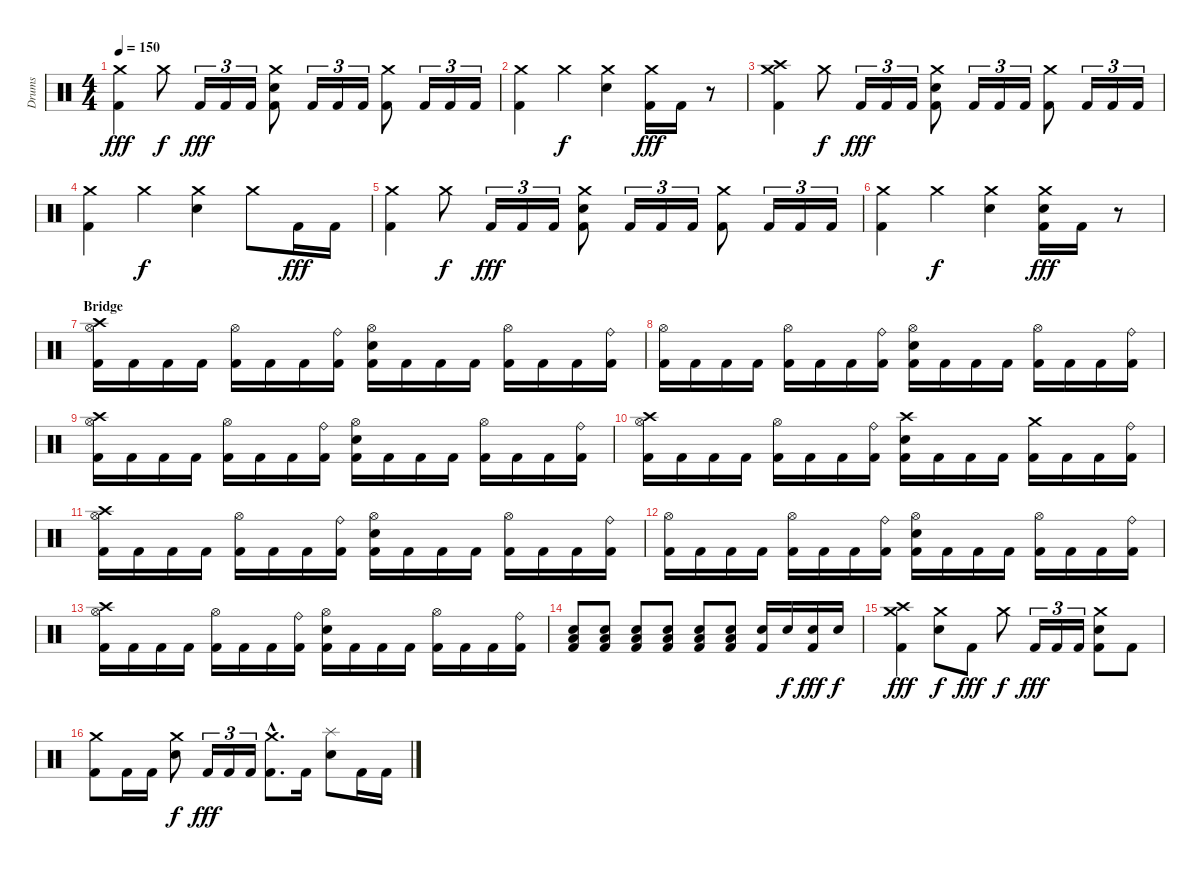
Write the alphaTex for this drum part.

\track ("Drums" "Drums") {instrument percussion}
\staff {score}
\articulation defaults
\ts (4 4)
\tempo 150
\clef neutral
\ks c
("Crash medium (hit)" "Kick (hit) 2").4{dy fff} "Crash medium (hit)".8{dy f} "Kick (hit) 2".16{tu (3 2) dy fff} "Kick (hit) 2".16{tu (3 2)} "Kick (hit) 2".16{tu (3 2)} ("Crash medium (hit)" "Snare (hit) 2" "Kick (hit) 2").8 "Kick (hit) 2".16{tu (3 2)} "Kick (hit) 2".16{tu (3 2)} "Kick (hit) 2".16{tu (3 2)} ("Crash medium (hit)" "Kick (hit) 2").8 "Kick (hit) 2".16{tu (3 2)} "Kick (hit) 2".16{tu (3 2)} "Kick (hit) 2".16{tu (3 2)} |
("Crash medium (hit)" "Kick (hit) 2").4 "Crash medium (hit)".4{dy f} ("Crash medium (hit)" "Snare (hit) 2").4 ("Crash medium (hit)" "Kick (hit) 2").16{dy fff} "Kick (hit) 2".16 r.8 |
("Crash medium (hit)" "Crash high (hit)" "Kick (hit) 2").4 "Crash medium (hit)".8{dy f} "Kick (hit) 2".16{tu (3 2) dy fff} "Kick (hit) 2".16{tu (3 2)} "Kick (hit) 2".16{tu (3 2)} ("Crash medium (hit)" "Snare (hit) 2" "Kick (hit) 2").8 "Kick (hit) 2".16{tu (3 2)} "Kick (hit) 2".16{tu (3 2)} "Kick (hit) 2".16{tu (3 2)} ("Crash medium (hit)" "Kick (hit) 2").8 "Kick (hit) 2".16{tu (3 2)} "Kick (hit) 2".16{tu (3 2)} "Kick (hit) 2".16{tu (3 2)} |
("Crash medium (hit)" "Kick (hit) 2").4 "Crash medium (hit)".4{dy f} ("Crash medium (hit)" "Snare (hit) 2").4 "Crash medium (hit)".8 "Kick (hit) 2".16{dy fff} "Kick (hit) 2".16 |
("Crash medium (hit)" "Kick (hit) 2").4 "Crash medium (hit)".8{dy f} "Kick (hit) 2".16{tu (3 2) dy fff} "Kick (hit) 2".16{tu (3 2)} "Kick (hit) 2".16{tu (3 2)} ("Crash medium (hit)" "Snare (hit) 2" "Kick (hit) 2").8 "Kick (hit) 2".16{tu (3 2)} "Kick (hit) 2".16{tu (3 2)} "Kick (hit) 2".16{tu (3 2)} ("Crash medium (hit)" "Kick (hit) 2").8 "Kick (hit) 2".16{tu (3 2)} "Kick (hit) 2".16{tu (3 2)} "Kick (hit) 2".16{tu (3 2)} |
("Crash medium (hit)" "Kick (hit) 2").4 "Crash medium (hit)".4{dy f} ("Crash medium (hit)" "Snare (hit) 2").4 ("Crash medium (hit)" "Snare (hit) 2" "Kick (hit) 2").16{dy fff} "Kick (hit) 2".16 r.8 |
\section ("" "Bridge")
("Hi-Hat (open)" "Crash high (hit)" "Kick (hit) 2").16 "Kick (hit) 2".16 "Kick (hit) 2".16 "Kick (hit) 2".16 ("Hi-Hat (open)" "Kick (hit) 2").16 "Kick (hit) 2".16 "Kick (hit) 2".16 ("Ride (bell)" "Kick (hit) 2").16 ("Hi-Hat (open)" "Snare (hit) 2" "Kick (hit) 2").16 "Kick (hit) 2".16 "Kick (hit) 2".16 "Kick (hit) 2".16 ("Hi-Hat (open)" "Kick (hit) 2").16 "Kick (hit) 2".16 "Kick (hit) 2".16 ("Ride (bell)" "Kick (hit) 2").16 |
("Hi-Hat (open)" "Kick (hit) 2").16 "Kick (hit) 2".16 "Kick (hit) 2".16 "Kick (hit) 2".16 ("Hi-Hat (open)" "Kick (hit) 2").16 "Kick (hit) 2".16 "Kick (hit) 2".16 ("Ride (bell)" "Kick (hit) 2").16 ("Hi-Hat (open)" "Snare (hit) 2" "Kick (hit) 2").16 "Kick (hit) 2".16 "Kick (hit) 2".16 "Kick (hit) 2".16 ("Hi-Hat (open)" "Kick (hit) 2").16 "Kick (hit) 2".16 "Kick (hit) 2".16 ("Ride (bell)" "Kick (hit) 2").16 |
("Hi-Hat (open)" "Crash high (hit)" "Kick (hit) 2").16 "Kick (hit) 2".16 "Kick (hit) 2".16 "Kick (hit) 2".16 ("Hi-Hat (open)" "Kick (hit) 2").16 "Kick (hit) 2".16 "Kick (hit) 2".16 ("Ride (bell)" "Kick (hit) 2").16 ("Hi-Hat (open)" "Snare (hit) 2" "Kick (hit) 2").16 "Kick (hit) 2".16 "Kick (hit) 2".16 "Kick (hit) 2".16 ("Hi-Hat (open)" "Kick (hit) 2").16 "Kick (hit) 2".16 "Kick (hit) 2".16 ("Ride (bell)" "Kick (hit) 2").16 |
("Hi-Hat (open)" "Crash high (hit)" "Kick (hit) 2").16 "Kick (hit) 2".16 "Kick (hit) 2".16 "Kick (hit) 2".16 ("Hi-Hat (open)" "Kick (hit) 2").16 "Kick (hit) 2".16 "Kick (hit) 2".16 ("Ride (bell)" "Kick (hit) 2").16 ("Crash high (hit)" "Snare (hit) 2" "Kick (hit) 2").16 "Kick (hit) 2".16 "Kick (hit) 2".16 "Kick (hit) 2".16 ("Crash medium (hit)" "Kick (hit) 2").16 "Kick (hit) 2".16 "Kick (hit) 2".16 ("Ride (bell)" "Kick (hit) 2").16 |
("Hi-Hat (open)" "Crash high (hit)" "Kick (hit) 2").16 "Kick (hit) 2".16 "Kick (hit) 2".16 "Kick (hit) 2".16 ("Hi-Hat (open)" "Kick (hit) 2").16 "Kick (hit) 2".16 "Kick (hit) 2".16 ("Ride (bell)" "Kick (hit) 2").16 ("Hi-Hat (open)" "Snare (hit) 2" "Kick (hit) 2").16 "Kick (hit) 2".16 "Kick (hit) 2".16 "Kick (hit) 2".16 ("Hi-Hat (open)" "Kick (hit) 2").16 "Kick (hit) 2".16 "Kick (hit) 2".16 ("Ride (bell)" "Kick (hit) 2").16 |
("Hi-Hat (open)" "Kick (hit) 2").16 "Kick (hit) 2".16 "Kick (hit) 2".16 "Kick (hit) 2".16 ("Hi-Hat (open)" "Kick (hit) 2").16 "Kick (hit) 2".16 "Kick (hit) 2".16 ("Ride (bell)" "Kick (hit) 2").16 ("Hi-Hat (open)" "Snare (hit) 2" "Kick (hit) 2").16 "Kick (hit) 2".16 "Kick (hit) 2".16 "Kick (hit) 2".16 ("Hi-Hat (open)" "Kick (hit) 2").16 "Kick (hit) 2".16 "Kick (hit) 2".16 ("Ride (bell)" "Kick (hit) 2").16 |
("Hi-Hat (open)" "Crash high (hit)" "Kick (hit) 2").16 "Kick (hit) 2".16 "Kick (hit) 2".16 "Kick (hit) 2".16 ("Hi-Hat (open)" "Kick (hit) 2").16 "Kick (hit) 2".16 "Kick (hit) 2".16 ("Ride (bell)" "Kick (hit) 2").16 ("Hi-Hat (open)" "Snare (hit) 2" "Kick (hit) 2").16 "Kick (hit) 2".16 "Kick (hit) 2".16 "Kick (hit) 2".16 ("Hi-Hat (open)" "Kick (hit) 2").16 "Kick (hit) 2".16 "Kick (hit) 2".16 ("Ride (bell)" "Kick (hit) 2").16 |
("Low Floor Tom (hit)" "Snare (hit) 2" "Kick (hit) 2").8 ("Low Floor Tom (hit)" "Snare (hit) 2" "Kick (hit) 2").8 ("Low Floor Tom (hit)" "Snare (hit) 2" "Kick (hit) 2").8 ("Low Floor Tom (hit)" "Snare (hit) 2" "Kick (hit) 2").8 ("Low Floor Tom (hit)" "Snare (hit) 2" "Kick (hit) 2").8 ("Low Floor Tom (hit)" "Snare (hit) 2" "Kick (hit) 2").8 ("Snare (hit) 2" "Kick (hit) 2").16 "Snare (hit) 2".16{dy f} ("Snare (hit) 2" "Kick (hit) 2").16{dy fff} "Snare (hit) 2".16{dy f} |
("Crash medium (hit)" "Crash high (hit)" "Kick (hit) 2").4{dy fff} ("Crash medium (hit)" "Snare (hit) 2").8{dy f} "Kick (hit) 2".8{dy fff} "Crash medium (hit)".8{dy f} "Kick (hit) 2".16{tu (3 2) dy fff} "Kick (hit) 2".16{tu (3 2)} "Kick (hit) 2".16{tu (3 2)} ("Crash medium (hit)" "Snare (hit) 2" "Kick (hit) 2").8 "Kick (hit) 2".8 |
("Crash medium (hit)" "Kick (hit) 2").8 "Kick (hit) 2".16 "Kick (hit) 2".16 ("Crash medium (hit)" "Snare (hit) 2").8{dy f} "Kick (hit) 2".16{tu (3 2) dy fff} "Kick (hit) 2".16{tu (3 2)} "Kick (hit) 2".16{tu (3 2)} ("Crash medium (hit)"{hac} "Kick (hit) 2"{hac}).8{d} "Kick (hit) 2".16 ("Splash (hit)" "Snare (hit) 2").8 "Kick (hit) 2".16 "Kick (hit) 2".16
